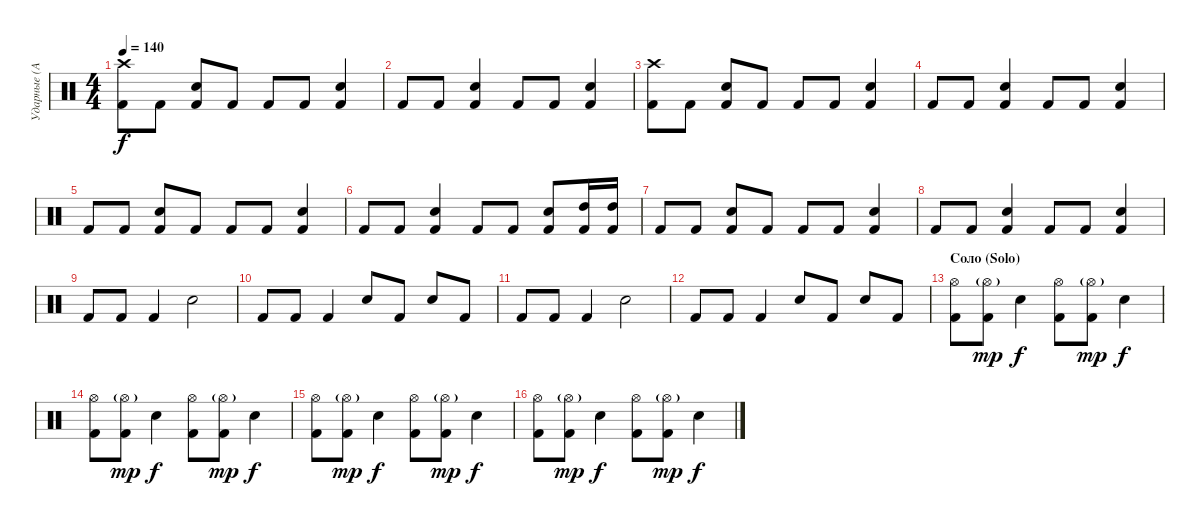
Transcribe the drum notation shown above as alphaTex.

\track ("Ударные (Алексей Барзилович)" "Ударные (А") {instrument percussion}
\staff {score}
\articulation defaults
\ts (4 4)
\tempo 140
\clef neutral
\ks c
("Crash high (hit)" "Kick (hit) 2").8{dy f} "Kick (hit) 2".8 ("Electric Snare (hit)" "Kick (hit) 2").8 "Kick (hit) 2".8 "Kick (hit) 2".8 "Kick (hit) 2".8 ("Electric Snare (hit)" "Kick (hit) 2").4 |
"Kick (hit) 2".8 "Kick (hit) 2".8 ("Electric Snare (hit)" "Kick (hit) 2").4 "Kick (hit) 2".8 "Kick (hit) 2".8 ("Electric Snare (hit)" "Kick (hit) 2").4 |
("Crash high (hit)" "Kick (hit) 2").8 "Kick (hit) 2".8 ("Electric Snare (hit)" "Kick (hit) 2").8 "Kick (hit) 2".8 "Kick (hit) 2".8 "Kick (hit) 2".8 ("Electric Snare (hit)" "Kick (hit) 2").4 |
"Kick (hit) 2".8 "Kick (hit) 2".8 ("Electric Snare (hit)" "Kick (hit) 2").4 "Kick (hit) 2".8 "Kick (hit) 2".8 ("Electric Snare (hit)" "Kick (hit) 2").4 |
"Kick (hit) 2".8 "Kick (hit) 2".8 ("Electric Snare (hit)" "Kick (hit) 2").8 "Kick (hit) 2".8 "Kick (hit) 2".8 "Kick (hit) 2".8 ("Electric Snare (hit)" "Kick (hit) 2").4 |
"Kick (hit) 2".8 "Kick (hit) 2".8 ("Electric Snare (hit)" "Kick (hit) 2").4 "Kick (hit) 2".8 "Kick (hit) 2".8 ("Electric Snare (hit)" "Kick (hit) 2").8 ("High Tom (hit)" "Kick (hit) 2").16 ("High Tom (hit)" "Kick (hit) 2").16 |
"Kick (hit) 2".8 "Kick (hit) 2".8 ("Electric Snare (hit)" "Kick (hit) 2").8 "Kick (hit) 2".8 "Kick (hit) 2".8 "Kick (hit) 2".8 ("Electric Snare (hit)" "Kick (hit) 2").4 |
"Kick (hit) 2".8 "Kick (hit) 2".8 ("Electric Snare (hit)" "Kick (hit) 2").4 "Kick (hit) 2".8 "Kick (hit) 2".8 ("Electric Snare (hit)" "Kick (hit) 2").4 |
"Kick (hit) 2".8 "Kick (hit) 2".8 "Kick (hit) 2".4 "Electric Snare (hit)".2 |
"Kick (hit) 2".8 "Kick (hit) 2".8 "Kick (hit) 2".4 "Electric Snare (hit)".8 "Kick (hit) 2".8 "Electric Snare (hit)".8 "Kick (hit) 2".8 |
"Kick (hit) 2".8 "Kick (hit) 2".8 "Kick (hit) 2".4 "Electric Snare (hit)".2 |
"Kick (hit) 2".8 "Kick (hit) 2".8 "Kick (hit) 2".4 "Electric Snare (hit)".8 "Kick (hit) 2".8 "Electric Snare (hit)".8 "Kick (hit) 2".8 |
\section ("" "Соло (Solo)")
("Hi-Hat (open)" "Kick (hit) 2").8 ("Hi-Hat (open)"{g} "Kick (hit) 2").8{dy mp} "Electric Snare (hit)".4{dy f} ("Hi-Hat (open)" "Kick (hit) 2").8 ("Hi-Hat (open)"{g} "Kick (hit) 2").8{dy mp} "Electric Snare (hit)".4{dy f} |
("Hi-Hat (open)" "Kick (hit) 2").8 ("Hi-Hat (open)"{g} "Kick (hit) 2").8{dy mp} "Electric Snare (hit)".4{dy f} ("Hi-Hat (open)" "Kick (hit) 2").8 ("Hi-Hat (open)"{g} "Kick (hit) 2").8{dy mp} "Electric Snare (hit)".4{dy f} |
("Hi-Hat (open)" "Kick (hit) 2").8 ("Hi-Hat (open)"{g} "Kick (hit) 2").8{dy mp} "Electric Snare (hit)".4{dy f} ("Hi-Hat (open)" "Kick (hit) 2").8 ("Hi-Hat (open)"{g} "Kick (hit) 2").8{dy mp} "Electric Snare (hit)".4{dy f} |
("Hi-Hat (open)" "Kick (hit) 2").8 ("Hi-Hat (open)"{g} "Kick (hit) 2").8{dy mp} "Electric Snare (hit)".4{dy f} ("Hi-Hat (open)" "Kick (hit) 2").8 ("Hi-Hat (open)"{g} "Kick (hit) 2").8{dy mp} "Electric Snare (hit)".4{dy f}
